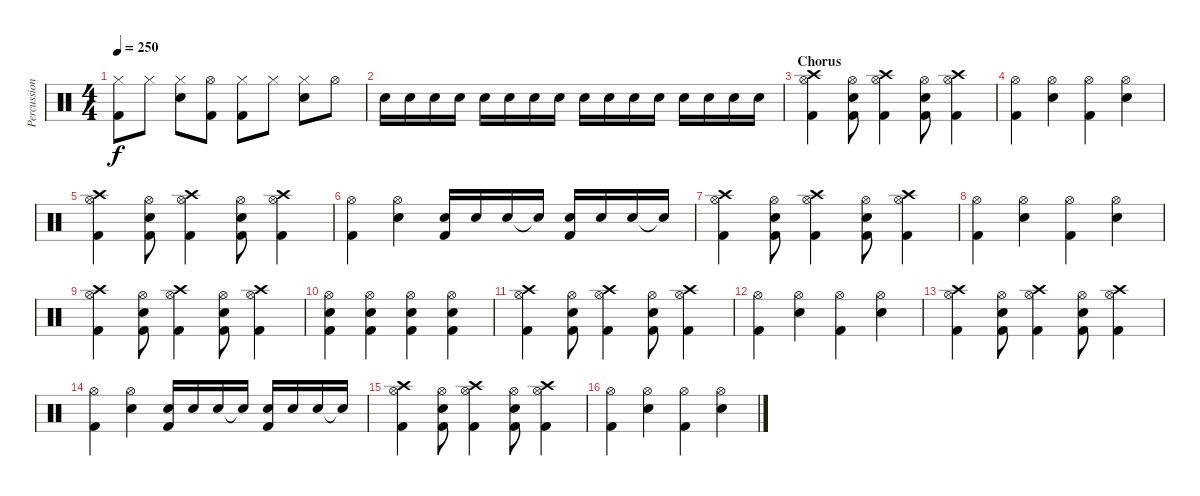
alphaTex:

\track ("Percussion" "Percussion") {instrument percussion}
\staff {score}
\articulation defaults
\ts (4 4)
\tempo 250
\clef neutral
\ks c
("Hi-Hat (closed)" "Kick (hit) 2").8{dy f} "Hi-Hat (closed)".8 ("Hi-Hat (closed)" "Electric Snare (hit)").8 ("Hi-Hat (open)" "Kick (hit) 2").8 ("Hi-Hat (closed)" "Kick (hit) 2").8 "Hi-Hat (closed)".8 ("Hi-Hat (closed)" "Electric Snare (hit)").8 "Hi-Hat (open)".8 |
"Electric Snare (hit)".16 "Electric Snare (hit)".16 "Electric Snare (hit)".16 "Electric Snare (hit)".16 "Electric Snare (hit)".16 "Electric Snare (hit)".16 "Electric Snare (hit)".16 "Electric Snare (hit)".16 "Electric Snare (hit)".16 "Electric Snare (hit)".16 "Electric Snare (hit)".16 "Electric Snare (hit)".16 "Electric Snare (hit)".16 "Electric Snare (hit)".16 "Electric Snare (hit)".16 "Electric Snare (hit)".16 |
\section ("" "Chorus")
("Crash high (hit)" "Hi-Hat (open)" "Kick (hit) 2").4 ("Hi-Hat (open)" "Electric Snare (hit)" "Kick (hit) 2").8 ("Crash high (hit)" "Hi-Hat (open)" "Kick (hit) 2").4 ("Hi-Hat (open)" "Electric Snare (hit)" "Kick (hit) 2").8 ("Crash high (hit)" "Hi-Hat (open)" "Kick (hit) 2").4 |
("Hi-Hat (open)" "Kick (hit) 2").4 ("Hi-Hat (open)" "Electric Snare (hit)").4 ("Hi-Hat (open)" "Kick (hit) 2").4 ("Hi-Hat (open)" "Electric Snare (hit)").4 |
("Crash high (hit)" "Hi-Hat (open)" "Kick (hit) 2").4 ("Hi-Hat (open)" "Electric Snare (hit)" "Kick (hit) 2").8 ("Crash high (hit)" "Hi-Hat (open)" "Kick (hit) 2").4 ("Hi-Hat (open)" "Electric Snare (hit)" "Kick (hit) 2").8 ("Crash high (hit)" "Hi-Hat (open)" "Kick (hit) 2").4 |
("Hi-Hat (open)" "Kick (hit) 2").4 ("Hi-Hat (open)" "Electric Snare (hit)").4 ("Electric Snare (hit)" "Kick (hit) 2").16 "Electric Snare (hit)".16 "Electric Snare (hit)".16 "Electric Snare (hit)"{t}.16 ("Electric Snare (hit)" "Kick (hit) 2").16 "Electric Snare (hit)".16 "Electric Snare (hit)".16 "Electric Snare (hit)"{t}.16 |
("Crash high (hit)" "Hi-Hat (open)" "Kick (hit) 2").4 ("Hi-Hat (open)" "Electric Snare (hit)" "Kick (hit) 2").8 ("Crash high (hit)" "Hi-Hat (open)" "Kick (hit) 2").4 ("Hi-Hat (open)" "Electric Snare (hit)" "Kick (hit) 2").8 ("Crash high (hit)" "Hi-Hat (open)" "Kick (hit) 2").4 |
("Hi-Hat (open)" "Kick (hit) 2").4 ("Hi-Hat (open)" "Electric Snare (hit)").4 ("Hi-Hat (open)" "Kick (hit) 2").4 ("Hi-Hat (open)" "Electric Snare (hit)").4 |
("Crash high (hit)" "Hi-Hat (open)" "Kick (hit) 2").4 ("Hi-Hat (open)" "Electric Snare (hit)" "Kick (hit) 2").8 ("Crash high (hit)" "Hi-Hat (open)" "Kick (hit) 2").4 ("Hi-Hat (open)" "Electric Snare (hit)" "Kick (hit) 2").8 ("Crash high (hit)" "Hi-Hat (open)" "Kick (hit) 2").4 |
("Hi-Hat (open)" "Electric Snare (hit)" "Kick (hit) 2").4 ("Hi-Hat (open)" "Electric Snare (hit)" "Kick (hit) 2").4 ("Hi-Hat (open)" "Electric Snare (hit)" "Kick (hit) 2").4 ("Hi-Hat (open)" "Electric Snare (hit)" "Kick (hit) 2").4 |
("Crash high (hit)" "Hi-Hat (open)" "Kick (hit) 2").4 ("Hi-Hat (open)" "Electric Snare (hit)" "Kick (hit) 2").8 ("Crash high (hit)" "Hi-Hat (open)" "Kick (hit) 2").4 ("Hi-Hat (open)" "Electric Snare (hit)" "Kick (hit) 2").8 ("Crash high (hit)" "Hi-Hat (open)" "Kick (hit) 2").4 |
("Hi-Hat (open)" "Kick (hit) 2").4 ("Hi-Hat (open)" "Electric Snare (hit)").4 ("Hi-Hat (open)" "Kick (hit) 2").4 ("Hi-Hat (open)" "Electric Snare (hit)").4 |
("Crash high (hit)" "Hi-Hat (open)" "Kick (hit) 2").4 ("Hi-Hat (open)" "Electric Snare (hit)" "Kick (hit) 2").8 ("Crash high (hit)" "Hi-Hat (open)" "Kick (hit) 2").4 ("Hi-Hat (open)" "Electric Snare (hit)" "Kick (hit) 2").8 ("Crash high (hit)" "Hi-Hat (open)" "Kick (hit) 2").4 |
("Hi-Hat (open)" "Kick (hit) 2").4 ("Hi-Hat (open)" "Electric Snare (hit)").4 ("Electric Snare (hit)" "Kick (hit) 2").16 "Electric Snare (hit)".16 "Electric Snare (hit)".16 "Electric Snare (hit)"{t}.16 ("Electric Snare (hit)" "Kick (hit) 2").16 "Electric Snare (hit)".16 "Electric Snare (hit)".16 "Electric Snare (hit)"{t}.16 |
("Crash high (hit)" "Hi-Hat (open)" "Kick (hit) 2").4 ("Hi-Hat (open)" "Electric Snare (hit)" "Kick (hit) 2").8 ("Crash high (hit)" "Hi-Hat (open)" "Kick (hit) 2").4 ("Hi-Hat (open)" "Electric Snare (hit)" "Kick (hit) 2").8 ("Crash high (hit)" "Hi-Hat (open)" "Kick (hit) 2").4 |
("Hi-Hat (open)" "Kick (hit) 2").4 ("Hi-Hat (open)" "Electric Snare (hit)").4 ("Hi-Hat (open)" "Kick (hit) 2").4 ("Hi-Hat (open)" "Electric Snare (hit)").4
